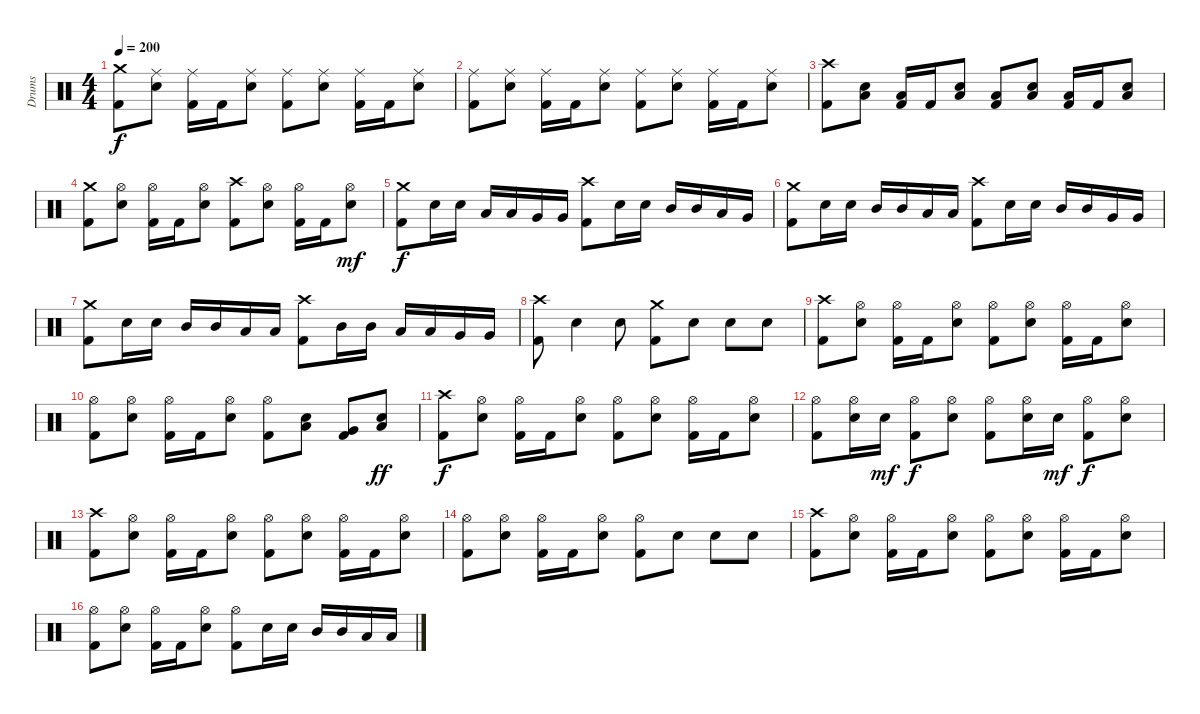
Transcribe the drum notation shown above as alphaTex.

\track ("Drums" "Drums") {instrument percussion}
\staff {score}
\articulation defaults
\ts (4 4)
\tempo 200
\clef neutral
\ks c
("Crash medium (hit)" "Kick (hit) 2").8{dy f} ("Ride (middle)" "Electric Snare (hit)").8 ("Ride (middle)" "Kick (hit) 2").16 "Kick (hit) 2".16 ("Ride (middle)" "Electric Snare (hit)").8 ("Ride (middle)" "Kick (hit) 2").8 ("Ride (middle)" "Electric Snare (hit)").8 ("Ride (middle)" "Kick (hit) 2").16 "Kick (hit) 2".16 ("Ride (middle)" "Electric Snare (hit)").8 |
("Ride (middle)" "Kick (hit) 2").8 ("Ride (middle)" "Electric Snare (hit)").8 ("Ride (middle)" "Kick (hit) 2").16 "Kick (hit) 2".16 ("Ride (middle)" "Electric Snare (hit)").8 ("Ride (middle)" "Kick (hit) 2").8 ("Ride (middle)" "Electric Snare (hit)").8 ("Ride (middle)" "Kick (hit) 2").16 "Kick (hit) 2".16 ("Ride (middle)" "Electric Snare (hit)").8 |
("Crash high (hit)" "Kick (hit) 2").8 ("Low Floor Tom (hit)" "Electric Snare (hit)").8 ("Low Floor Tom (hit)" "Kick (hit) 2").16 "Kick (hit) 2".16 ("Low Floor Tom (hit)" "Electric Snare (hit)").8 ("Low Floor Tom (hit)" "Kick (hit) 2").8 ("Low Floor Tom (hit)" "Electric Snare (hit)").8 ("Low Floor Tom (hit)" "Kick (hit) 2").16 "Kick (hit) 2".16 ("Low Floor Tom (hit)" "Electric Snare (hit)").8 |
("Crash medium (hit)" "Kick (hit) 2").8 ("Hi-Hat (open)" "Electric Snare (hit)").8 ("Hi-Hat (open)" "Kick (hit) 2").16 "Kick (hit) 2".16 ("Hi-Hat (open)" "Electric Snare (hit)").8 ("Crash high (hit)" "Kick (hit) 2").8 ("Hi-Hat (open)" "Electric Snare (hit)").8 ("Hi-Hat (open)" "Kick (hit) 2").16 "Kick (hit) 2".16 ("Hi-Hat (open)" "Electric Snare (hit)").8{dy mf} |
("Crash medium (hit)" "Kick (hit) 2").8{dy f} "Electric Snare (hit)".16 "Electric Snare (hit)".16 "Low Tom (hit)".16 "Low Tom (hit)".16 "Very Low Tom (hit)".16 "Very Low Tom (hit)".16 ("Crash high (hit)" "Kick (hit) 2").8 "Electric Snare (hit)".16 "Electric Snare (hit)".16 "Mid Tom (hit)".16 "Mid Tom (hit)".16 "Low Tom (hit)".16 "Very Low Tom (hit)".16 |
("Crash medium (hit)" "Kick (hit) 2").8 "Electric Snare (hit)".16 "Electric Snare (hit)".16 "Mid Tom (hit)".16 "Mid Tom (hit)".16 "Low Tom (hit)".16 "Low Tom (hit)".16 ("Crash high (hit)" "Kick (hit) 2").8 "Electric Snare (hit)".16 "Electric Snare (hit)".16 "Mid Tom (hit)".16 "Mid Tom (hit)".16 "Very Low Tom (hit)".16 "Very Low Tom (hit)".16 |
("Crash medium (hit)" "Kick (hit) 2").8 "Electric Snare (hit)".16 "Electric Snare (hit)".16 "Mid Tom (hit)".16 "Mid Tom (hit)".16 "Low Tom (hit)".16 "Low Tom (hit)".16 ("Crash high (hit)" "Kick (hit) 2").8 "Mid Tom (hit)".16 "Mid Tom (hit)".16 "Low Tom (hit)".16 "Low Tom (hit)".16 "Very Low Tom (hit)".16 "Very Low Tom (hit)".16 |
("Crash high (hit)" "Kick (hit) 2").8 "Electric Snare (hit)".4 "Electric Snare (hit)".8 ("Crash medium (hit)" "Kick (hit) 2").8 "Electric Snare (hit)".8 "Electric Snare (hit)".8 "Electric Snare (hit)".8 |
("Crash high (hit)" "Kick (hit) 2").8 ("Hi-Hat (open)" "Electric Snare (hit)").8 ("Hi-Hat (open)" "Kick (hit) 2").16 "Kick (hit) 2".16 ("Hi-Hat (open)" "Electric Snare (hit)").8 ("Hi-Hat (open)" "Kick (hit) 2").8 ("Hi-Hat (open)" "Electric Snare (hit)").8 ("Hi-Hat (open)" "Kick (hit) 2").16 "Kick (hit) 2".16 ("Hi-Hat (open)" "Electric Snare (hit)").8 |
("Hi-Hat (open)" "Kick (hit) 2").8 ("Hi-Hat (open)" "Electric Snare (hit)").8 ("Hi-Hat (open)" "Kick (hit) 2").16 "Kick (hit) 2".16 ("Hi-Hat (open)" "Electric Snare (hit)").8 ("Hi-Hat (open)" "Kick (hit) 2").8 ("Low Floor Tom (hit)" "Electric Snare (hit)").8 ("Very Low Tom (hit)" "Kick (hit) 2").8 ("Low Floor Tom (hit)" "Electric Snare (hit)").8{dy ff} |
("Crash high (hit)" "Kick (hit) 2").8{dy f} ("Hi-Hat (open)" "Electric Snare (hit)").8 ("Hi-Hat (open)" "Kick (hit) 2").16 "Kick (hit) 2".16 ("Hi-Hat (open)" "Electric Snare (hit)").8 ("Hi-Hat (open)" "Kick (hit) 2").8 ("Hi-Hat (open)" "Electric Snare (hit)").8 ("Hi-Hat (open)" "Kick (hit) 2").16 "Kick (hit) 2".16 ("Hi-Hat (open)" "Electric Snare (hit)").8 |
("Hi-Hat (open)" "Kick (hit) 2").8 ("Hi-Hat (open)" "Electric Snare (hit)").16 "Electric Snare (hit)".16{dy mf} ("Hi-Hat (open)" "Kick (hit) 2").8{dy f} ("Hi-Hat (open)" "Electric Snare (hit)").8 ("Hi-Hat (open)" "Kick (hit) 2").8 ("Hi-Hat (open)" "Electric Snare (hit)").16 "Electric Snare (hit)".16{dy mf} ("Hi-Hat (open)" "Kick (hit) 2").8{dy f} ("Hi-Hat (open)" "Electric Snare (hit)").8 |
("Crash high (hit)" "Kick (hit) 2").8 ("Hi-Hat (open)" "Electric Snare (hit)").8 ("Hi-Hat (open)" "Kick (hit) 2").16 "Kick (hit) 2".16 ("Hi-Hat (open)" "Electric Snare (hit)").8 ("Hi-Hat (open)" "Kick (hit) 2").8 ("Hi-Hat (open)" "Electric Snare (hit)").8 ("Hi-Hat (open)" "Kick (hit) 2").16 "Kick (hit) 2".16 ("Hi-Hat (open)" "Electric Snare (hit)").8 |
("Hi-Hat (open)" "Kick (hit) 2").8 ("Hi-Hat (open)" "Electric Snare (hit)").8 ("Hi-Hat (open)" "Kick (hit) 2").16 "Kick (hit) 2".16 ("Hi-Hat (open)" "Electric Snare (hit)").8 ("Hi-Hat (open)" "Kick (hit) 2").8 "Electric Snare (hit)".8 "Electric Snare (hit)".8 "Electric Snare (hit)".8 |
("Crash high (hit)" "Kick (hit) 2").8 ("Hi-Hat (open)" "Electric Snare (hit)").8 ("Hi-Hat (open)" "Kick (hit) 2").16 "Kick (hit) 2".16 ("Hi-Hat (open)" "Electric Snare (hit)").8 ("Hi-Hat (open)" "Kick (hit) 2").8 ("Hi-Hat (open)" "Electric Snare (hit)").8 ("Hi-Hat (open)" "Kick (hit) 2").16 "Kick (hit) 2".16 ("Hi-Hat (open)" "Electric Snare (hit)").8 |
("Hi-Hat (open)" "Kick (hit) 2").8 ("Hi-Hat (open)" "Electric Snare (hit)").8 ("Hi-Hat (open)" "Kick (hit) 2").16 "Kick (hit) 2".16 ("Hi-Hat (open)" "Electric Snare (hit)").8 ("Hi-Hat (open)" "Kick (hit) 2").8 "Electric Snare (hit)".16 "Electric Snare (hit)".16 "Mid Tom (hit)".16 "Mid Tom (hit)".16 "Low Tom (hit)".16 "Low Tom (hit)".16
